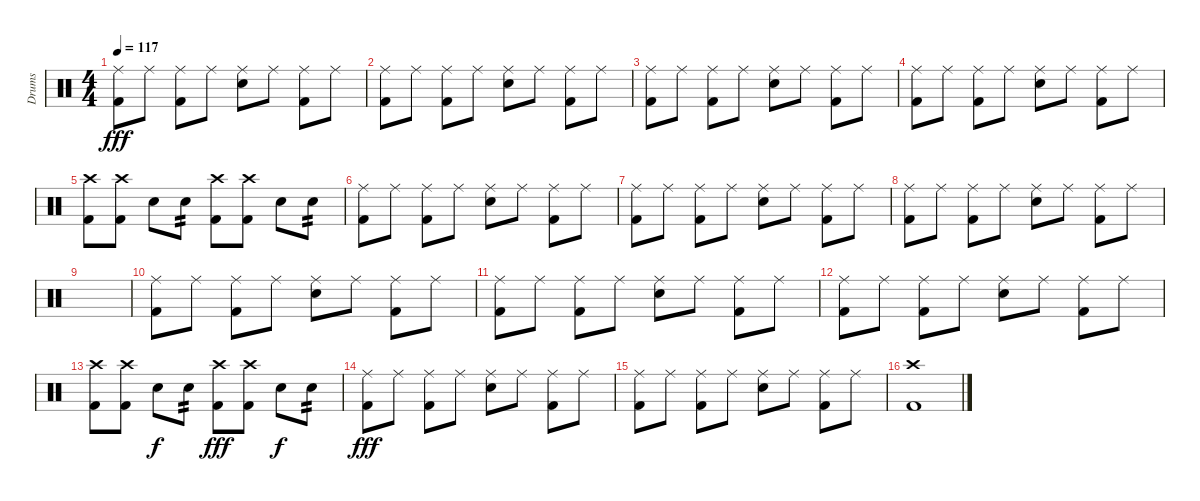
\track ("Drums" "Drums") {instrument percussion}
\staff {score}
\articulation defaults
\ts (4 4)
\tempo 117
\clef neutral
\ks c
("Ride (middle)" "Kick (hit) 2").8{dy fff} "Ride (middle)".8 ("Ride (middle)" "Kick (hit) 2").8 "Ride (middle)".8 ("Ride (middle)" "Snare (hit) 2").8 "Ride (middle)".8 ("Ride (middle)" "Kick (hit) 2").8 "Ride (middle)".8 |
("Ride (middle)" "Kick (hit) 2").8 "Ride (middle)".8 ("Ride (middle)" "Kick (hit) 2").8 "Ride (middle)".8 ("Ride (middle)" "Snare (hit) 2").8 "Ride (middle)".8 ("Ride (middle)" "Kick (hit) 2").8 "Ride (middle)".8 |
("Ride (middle)" "Kick (hit) 2").8 "Ride (middle)".8 ("Ride (middle)" "Kick (hit) 2").8 "Ride (middle)".8 ("Ride (middle)" "Snare (hit) 2").8 "Ride (middle)".8 ("Ride (middle)" "Kick (hit) 2").8 "Ride (middle)".8 |
("Ride (middle)" "Kick (hit) 2").8 "Ride (middle)".8 ("Ride (middle)" "Kick (hit) 2").8 "Ride (middle)".8 ("Ride (middle)" "Snare (hit) 2").8 "Ride (middle)".8 ("Ride (middle)" "Kick (hit) 2").8 "Ride (middle)".8 |
("Crash high (hit)" "Kick (hit) 2").8 ("Crash high (hit)" "Kick (hit) 2").8 "Snare (hit) 2".8 "Snare (hit) 2".8{tp 2} ("Crash high (hit)" "Kick (hit) 2").8 ("Crash high (hit)" "Kick (hit) 2").8 "Snare (hit) 2".8 "Snare (hit) 2".8{tp 2} |
("Ride (middle)" "Kick (hit) 2").8 "Ride (middle)".8 ("Ride (middle)" "Kick (hit) 2").8 "Ride (middle)".8 ("Ride (middle)" "Snare (hit) 2").8 "Ride (middle)".8 ("Ride (middle)" "Kick (hit) 2").8 "Ride (middle)".8 |
("Ride (middle)" "Kick (hit) 2").8 "Ride (middle)".8 ("Ride (middle)" "Kick (hit) 2").8 "Ride (middle)".8 ("Ride (middle)" "Snare (hit) 2").8 "Ride (middle)".8 ("Ride (middle)" "Kick (hit) 2").8 "Ride (middle)".8 |
("Ride (middle)" "Kick (hit) 2").8 "Ride (middle)".8 ("Ride (middle)" "Kick (hit) 2").8 "Ride (middle)".8 ("Ride (middle)" "Snare (hit) 2").8 "Ride (middle)".8 ("Ride (middle)" "Kick (hit) 2").8 "Ride (middle)".8 |
|
("Ride (middle)" "Kick (hit) 2").8 "Ride (middle)".8 ("Ride (middle)" "Kick (hit) 2").8 "Ride (middle)".8 ("Ride (middle)" "Snare (hit) 2").8 "Ride (middle)".8 ("Ride (middle)" "Kick (hit) 2").8 "Ride (middle)".8 |
("Ride (middle)" "Kick (hit) 2").8 "Ride (middle)".8 ("Ride (middle)" "Kick (hit) 2").8 "Ride (middle)".8 ("Ride (middle)" "Snare (hit) 2").8 "Ride (middle)".8 ("Ride (middle)" "Kick (hit) 2").8 "Ride (middle)".8 |
("Ride (middle)" "Kick (hit) 2").8 "Ride (middle)".8 ("Ride (middle)" "Kick (hit) 2").8 "Ride (middle)".8 ("Ride (middle)" "Snare (hit) 2").8 "Ride (middle)".8 ("Ride (middle)" "Kick (hit) 2").8 "Ride (middle)".8 |
("Crash high (hit)" "Kick (hit) 2").8 ("Crash high (hit)" "Kick (hit) 2").8 "Snare (hit) 2".8{dy f} "Snare (hit) 2".8{tp 2} ("Crash high (hit)" "Kick (hit) 2").8{dy fff} ("Crash high (hit)" "Kick (hit) 2").8 "Snare (hit) 2".8{dy f} "Snare (hit) 2".8{tp 2} |
("Ride (middle)" "Kick (hit) 2").8{dy fff} "Ride (middle)".8 ("Ride (middle)" "Kick (hit) 2").8 "Ride (middle)".8 ("Ride (middle)" "Snare (hit) 2").8 "Ride (middle)".8 ("Ride (middle)" "Kick (hit) 2").8 "Ride (middle)".8 |
("Ride (middle)" "Kick (hit) 2").8 "Ride (middle)".8 ("Ride (middle)" "Kick (hit) 2").8 "Ride (middle)".8 ("Ride (middle)" "Snare (hit) 2").8 "Ride (middle)".8 ("Ride (middle)" "Kick (hit) 2").8 "Ride (middle)".8 |
("Crash high (hit)" "Kick (hit) 2").1
